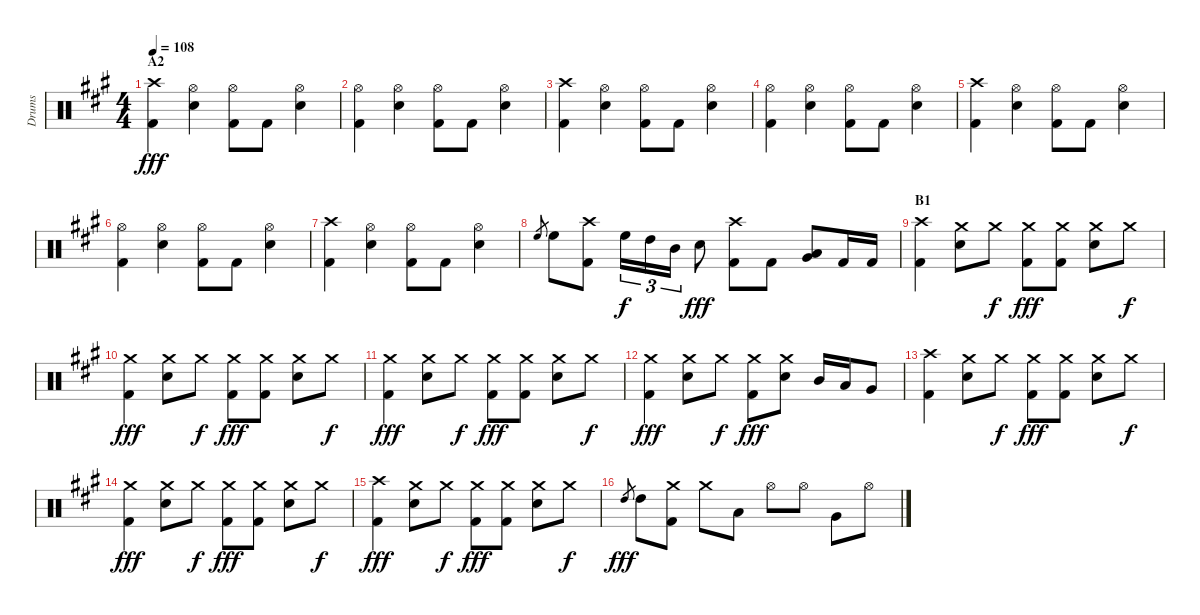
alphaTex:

\track ("Drums" "Drums") {instrument percussion}
\staff {score}
\articulation defaults
\ts (4 4)
\section ("" "A2")
\tempo 108
\clef neutral
\ks a
("Crash high (hit)" "Kick (hit) 2").4{dy fff} ("Hi-Hat (open)" "Electric Snare (hit)").4 ("Hi-Hat (open)" "Kick (hit) 2").8 "Kick (hit) 2".8 ("Hi-Hat (open)" "Electric Snare (hit)").4 |
("Hi-Hat (open)" "Kick (hit) 2").4 ("Hi-Hat (open)" "Electric Snare (hit)").4 ("Hi-Hat (open)" "Kick (hit) 2").8 "Kick (hit) 2".8 ("Hi-Hat (open)" "Electric Snare (hit)").4 |
("Crash high (hit)" "Kick (hit) 2").4 ("Hi-Hat (open)" "Electric Snare (hit)").4 ("Hi-Hat (open)" "Kick (hit) 2").8 "Kick (hit) 2".8 ("Hi-Hat (open)" "Electric Snare (hit)").4 |
("Hi-Hat (open)" "Kick (hit) 2").4 ("Hi-Hat (open)" "Electric Snare (hit)").4 ("Hi-Hat (open)" "Kick (hit) 2").8 "Kick (hit) 2".8 ("Hi-Hat (open)" "Electric Snare (hit)").4 |
("Crash high (hit)" "Kick (hit) 2").4 ("Hi-Hat (open)" "Electric Snare (hit)").4 ("Hi-Hat (open)" "Kick (hit) 2").8 "Kick (hit) 2".8 ("Hi-Hat (open)" "Electric Snare (hit)").4 |
("Hi-Hat (open)" "Kick (hit) 2").4 ("Hi-Hat (open)" "Electric Snare (hit)").4 ("Hi-Hat (open)" "Kick (hit) 2").8 "Kick (hit) 2".8 ("Hi-Hat (open)" "Electric Snare (hit)").4 |
("Crash high (hit)" "Kick (hit) 2").4 ("Hi-Hat (open)" "Electric Snare (hit)").4 ("Hi-Hat (open)" "Kick (hit) 2").8 "Kick (hit) 2".8 ("Hi-Hat (open)" "Electric Snare (hit)").4 |
"High Floor Tom (hit)".8{gr} "High Floor Tom (hit)".8 ("Crash high (hit)" "Kick (hit) 2").8 "High Floor Tom (hit)".16{tu (3 2) dy f} "High Tom (hit)".16{tu (3 2)} "Mid Tom (hit)".16{tu (3 2)} "Electric Snare (hit)".8{dy fff} ("Crash high (hit)" "Kick (hit) 2").8 "Kick (hit) 2".8 ("Very Low Tom (hit)" "Low Floor Tom (hit)").8 "Kick (hit) 2".16 "Kick (hit) 2".16 |
\section ("" "B1")
("Crash high (hit)" "Kick (hit) 2").4 ("Crash medium (hit)" "Electric Snare (hit)").8 "Crash medium (hit)".8{dy f} ("Crash medium (hit)" "Kick (hit) 2").8{dy fff} ("Crash medium (hit)" "Kick (hit) 2").8 ("Crash medium (hit)" "Electric Snare (hit)").8 "Crash medium (hit)".8{dy f} |
("Crash medium (hit)" "Kick (hit) 2").4{dy fff} ("Crash medium (hit)" "Electric Snare (hit)").8 "Crash medium (hit)".8{dy f} ("Crash medium (hit)" "Kick (hit) 2").8{dy fff} ("Crash medium (hit)" "Kick (hit) 2").8 ("Crash medium (hit)" "Electric Snare (hit)").8 "Crash medium (hit)".8{dy f} |
("Crash medium (hit)" "Kick (hit) 2").4{dy fff} ("Crash medium (hit)" "Electric Snare (hit)").8 "Crash medium (hit)".8{dy f} ("Crash medium (hit)" "Kick (hit) 2").8{dy fff} ("Crash medium (hit)" "Kick (hit) 2").8 ("Crash medium (hit)" "Electric Snare (hit)").8 "Crash medium (hit)".8{dy f} |
("Crash medium (hit)" "Kick (hit) 2").4{dy fff} ("Crash medium (hit)" "Electric Snare (hit)").8 "Crash medium (hit)".8{dy f} ("Crash medium (hit)" "Kick (hit) 2").8{dy fff} ("Crash medium (hit)" "Electric Snare (hit)").8 "Mid Tom (hit)".16 "Low Tom (hit)".16 "Very Low Tom (hit)".8 |
("Crash high (hit)" "Kick (hit) 2").4 ("Crash medium (hit)" "Electric Snare (hit)").8 "Crash medium (hit)".8{dy f} ("Crash medium (hit)" "Kick (hit) 2").8{dy fff} ("Crash medium (hit)" "Kick (hit) 2").8 ("Crash medium (hit)" "Electric Snare (hit)").8 "Crash medium (hit)".8{dy f} |
("Crash medium (hit)" "Kick (hit) 2").4{dy fff} ("Crash medium (hit)" "Electric Snare (hit)").8 "Crash medium (hit)".8{dy f} ("Crash medium (hit)" "Kick (hit) 2").8{dy fff} ("Crash medium (hit)" "Kick (hit) 2").8 ("Crash medium (hit)" "Electric Snare (hit)").8 "Crash medium (hit)".8{dy f} |
("Crash high (hit)" "Kick (hit) 2").4{dy fff} ("Crash medium (hit)" "Electric Snare (hit)").8 "Crash medium (hit)".8{dy f} ("Crash medium (hit)" "Kick (hit) 2").8{dy fff} ("Crash medium (hit)" "Kick (hit) 2").8 ("Crash medium (hit)" "Electric Snare (hit)").8 "Crash medium (hit)".8{dy f} |
"High Tom (hit)".8{gr dy fff} "High Tom (hit)".8 ("Crash medium (hit)" "Kick (hit) 2").8 "Crash medium (hit)".8 "Low Tom (hit)".8 "Hi-Hat (open)".8 "Hi-Hat (open)".8 "Very Low Tom (hit)".8 "Hi-Hat (open)".8
